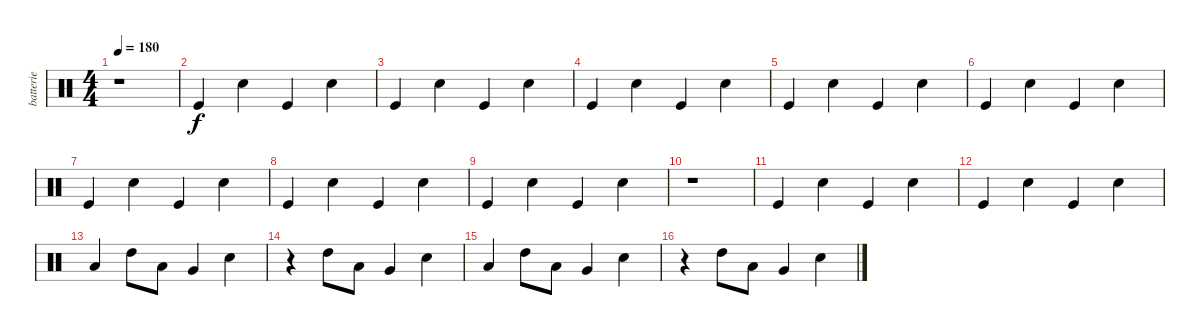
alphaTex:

\track ("batterie" "batterie") {instrument percussion}
\staff {score}
\articulation defaults
\ts (4 4)
\tempo 180
\clef neutral
\ks c
r.1{dy f} |
"Kick (hit)".4 "Snare (hit) 2".4 "Kick (hit)".4 "Snare (hit) 2".4 |
"Kick (hit)".4 "Snare (hit) 2".4 "Kick (hit)".4 "Snare (hit) 2".4 |
"Kick (hit)".4 "Snare (hit) 2".4 "Kick (hit)".4 "Snare (hit) 2".4 |
"Kick (hit)".4 "Snare (hit) 2".4 "Kick (hit)".4 "Snare (hit) 2".4 |
"Kick (hit)".4 "Snare (hit) 2".4 "Kick (hit)".4 "Snare (hit) 2".4 |
"Kick (hit)".4 "Snare (hit) 2".4 "Kick (hit)".4 "Snare (hit) 2".4 |
"Kick (hit)".4 "Snare (hit) 2".4 "Kick (hit)".4 "Snare (hit) 2".4 |
"Kick (hit)".4 "Snare (hit) 2".4 "Kick (hit)".4 "Snare (hit) 2".4 |
r.1 |
"Kick (hit)".4 "Snare (hit) 2".4 "Kick (hit)".4 "Snare (hit) 2".4 |
"Kick (hit)".4 "Snare (hit) 2".4 "Kick (hit)".4 "Snare (hit) 2".4 |
"Low Floor Tom (hit)".4 "High Tom (hit)".8 "Low Tom (hit)".8 "Very Low Tom (hit)".4 "Snare (hit) 2".4 |
r.4 "High Tom (hit)".8 "Low Tom (hit)".8 "Very Low Tom (hit)".4 "Snare (hit) 2".4 |
"Low Floor Tom (hit)".4 "High Tom (hit)".8 "Low Tom (hit)".8 "Very Low Tom (hit)".4 "Snare (hit) 2".4 |
r.4 "High Tom (hit)".8 "Low Tom (hit)".8 "Very Low Tom (hit)".4 "Snare (hit) 2".4
